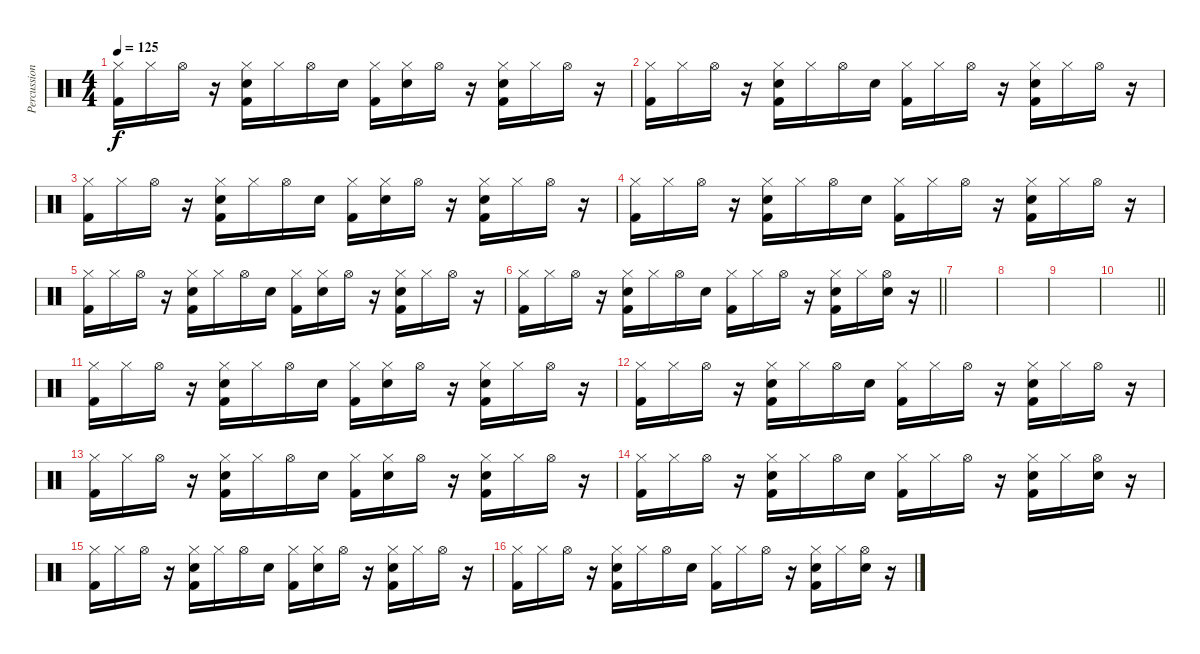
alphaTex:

\track ("Percussion" "Percussion") {instrument percussion}
\staff {score}
\articulation defaults
\ts (4 4)
\tempo 125
\clef neutral
\ks c
("Hi-Hat (closed)" "Kick (hit) 2").16{dy f} "Hi-Hat (closed)".16 "Hi-Hat (open)".16 r.16 ("Hi-Hat (closed)" "Electric Snare (hit)" "Kick (hit) 2").16 "Hi-Hat (closed)".16 "Hi-Hat (open)".16 "Electric Snare (hit)".16 ("Hi-Hat (closed)" "Kick (hit) 2").16 ("Hi-Hat (closed)" "Electric Snare (hit)").16 "Hi-Hat (open)".16 r.16 ("Hi-Hat (closed)" "Electric Snare (hit)" "Kick (hit) 2").16 "Hi-Hat (closed)".16 "Hi-Hat (open)".16 r.16 |
("Hi-Hat (closed)" "Kick (hit) 2").16 "Hi-Hat (closed)".16 "Hi-Hat (open)".16 r.16 ("Hi-Hat (closed)" "Electric Snare (hit)" "Kick (hit) 2").16 "Hi-Hat (closed)".16 "Hi-Hat (open)".16 "Electric Snare (hit)".16 ("Hi-Hat (closed)" "Kick (hit) 2").16 "Hi-Hat (closed)".16 "Hi-Hat (open)".16 r.16 ("Hi-Hat (closed)" "Electric Snare (hit)" "Kick (hit) 2").16 "Hi-Hat (closed)".16 "Hi-Hat (open)".16 r.16 |
("Hi-Hat (closed)" "Kick (hit) 2").16 "Hi-Hat (closed)".16 "Hi-Hat (open)".16 r.16 ("Hi-Hat (closed)" "Electric Snare (hit)" "Kick (hit) 2").16 "Hi-Hat (closed)".16 "Hi-Hat (open)".16 "Electric Snare (hit)".16 ("Hi-Hat (closed)" "Kick (hit) 2").16 ("Hi-Hat (closed)" "Electric Snare (hit)").16 "Hi-Hat (open)".16 r.16 ("Hi-Hat (closed)" "Electric Snare (hit)" "Kick (hit) 2").16 "Hi-Hat (closed)".16 "Hi-Hat (open)".16 r.16 |
("Hi-Hat (closed)" "Kick (hit) 2").16 "Hi-Hat (closed)".16 "Hi-Hat (open)".16 r.16 ("Hi-Hat (closed)" "Electric Snare (hit)" "Kick (hit) 2").16 "Hi-Hat (closed)".16 "Hi-Hat (open)".16 "Electric Snare (hit)".16 ("Hi-Hat (closed)" "Kick (hit) 2").16 "Hi-Hat (closed)".16 "Hi-Hat (open)".16 r.16 ("Hi-Hat (closed)" "Electric Snare (hit)" "Kick (hit) 2").16 "Hi-Hat (closed)".16 "Hi-Hat (open)".16 r.16 |
("Hi-Hat (closed)" "Kick (hit) 2").16 "Hi-Hat (closed)".16 "Hi-Hat (open)".16 r.16 ("Hi-Hat (closed)" "Electric Snare (hit)" "Kick (hit) 2").16 "Hi-Hat (closed)".16 "Hi-Hat (open)".16 "Electric Snare (hit)".16 ("Hi-Hat (closed)" "Kick (hit) 2").16 ("Hi-Hat (closed)" "Electric Snare (hit)").16 "Hi-Hat (open)".16 r.16 ("Hi-Hat (closed)" "Electric Snare (hit)" "Kick (hit) 2").16 "Hi-Hat (closed)".16 "Hi-Hat (open)".16 r.16 |
\barLineRight lightlight
("Hi-Hat (closed)" "Kick (hit) 2").16 "Hi-Hat (closed)".16 "Hi-Hat (open)".16 r.16 ("Hi-Hat (closed)" "Electric Snare (hit)" "Kick (hit) 2").16 "Hi-Hat (closed)".16 "Hi-Hat (open)".16 "Electric Snare (hit)".16 ("Hi-Hat (closed)" "Kick (hit) 2").16 "Hi-Hat (closed)".16 "Hi-Hat (open)".16 r.16 ("Hi-Hat (closed)" "Electric Snare (hit)" "Kick (hit) 2").16 "Hi-Hat (closed)".16 ("Hi-Hat (open)" "Electric Snare (hit)").16 r.16 |
|
|
|
\barLineRight lightlight
|
("Hi-Hat (closed)" "Kick (hit) 2").16 "Hi-Hat (closed)".16 "Hi-Hat (open)".16 r.16 ("Hi-Hat (closed)" "Electric Snare (hit)" "Kick (hit) 2").16 "Hi-Hat (closed)".16 "Hi-Hat (open)".16 "Electric Snare (hit)".16 ("Hi-Hat (closed)" "Kick (hit) 2").16 ("Hi-Hat (closed)" "Electric Snare (hit)").16 "Hi-Hat (open)".16 r.16 ("Hi-Hat (closed)" "Electric Snare (hit)" "Kick (hit) 2").16 "Hi-Hat (closed)".16 "Hi-Hat (open)".16 r.16 |
("Hi-Hat (closed)" "Kick (hit) 2").16 "Hi-Hat (closed)".16 "Hi-Hat (open)".16 r.16 ("Hi-Hat (closed)" "Electric Snare (hit)" "Kick (hit) 2").16 "Hi-Hat (closed)".16 "Hi-Hat (open)".16 "Electric Snare (hit)".16 ("Hi-Hat (closed)" "Kick (hit) 2").16 "Hi-Hat (closed)".16 "Hi-Hat (open)".16 r.16 ("Hi-Hat (closed)" "Electric Snare (hit)" "Kick (hit) 2").16 "Hi-Hat (closed)".16 "Hi-Hat (open)".16 r.16 |
("Hi-Hat (closed)" "Kick (hit) 2").16 "Hi-Hat (closed)".16 "Hi-Hat (open)".16 r.16 ("Hi-Hat (closed)" "Electric Snare (hit)" "Kick (hit) 2").16 "Hi-Hat (closed)".16 "Hi-Hat (open)".16 "Electric Snare (hit)".16 ("Hi-Hat (closed)" "Kick (hit) 2").16 ("Hi-Hat (closed)" "Electric Snare (hit)").16 "Hi-Hat (open)".16 r.16 ("Hi-Hat (closed)" "Electric Snare (hit)" "Kick (hit) 2").16 "Hi-Hat (closed)".16 "Hi-Hat (open)".16 r.16 |
("Hi-Hat (closed)" "Kick (hit) 2").16 "Hi-Hat (closed)".16 "Hi-Hat (open)".16 r.16 ("Hi-Hat (closed)" "Electric Snare (hit)" "Kick (hit) 2").16 "Hi-Hat (closed)".16 "Hi-Hat (open)".16 "Electric Snare (hit)".16 ("Hi-Hat (closed)" "Kick (hit) 2").16 "Hi-Hat (closed)".16 "Hi-Hat (open)".16 r.16 ("Hi-Hat (closed)" "Electric Snare (hit)" "Kick (hit) 2").16 "Hi-Hat (closed)".16 ("Hi-Hat (open)" "Electric Snare (hit)").16 r.16 |
("Hi-Hat (closed)" "Kick (hit) 2").16 "Hi-Hat (closed)".16 "Hi-Hat (open)".16 r.16 ("Hi-Hat (closed)" "Electric Snare (hit)" "Kick (hit) 2").16 "Hi-Hat (closed)".16 "Hi-Hat (open)".16 "Electric Snare (hit)".16 ("Hi-Hat (closed)" "Kick (hit) 2").16 ("Hi-Hat (closed)" "Electric Snare (hit)").16 "Hi-Hat (open)".16 r.16 ("Hi-Hat (closed)" "Electric Snare (hit)" "Kick (hit) 2").16 "Hi-Hat (closed)".16 "Hi-Hat (open)".16 r.16 |
("Hi-Hat (closed)" "Kick (hit) 2").16 "Hi-Hat (closed)".16 "Hi-Hat (open)".16 r.16 ("Hi-Hat (closed)" "Electric Snare (hit)" "Kick (hit) 2").16 "Hi-Hat (closed)".16 "Hi-Hat (open)".16 "Electric Snare (hit)".16 ("Hi-Hat (closed)" "Kick (hit) 2").16 "Hi-Hat (closed)".16 "Hi-Hat (open)".16 r.16 ("Hi-Hat (closed)" "Electric Snare (hit)" "Kick (hit) 2").16 "Hi-Hat (closed)".16 ("Hi-Hat (open)" "Electric Snare (hit)").16 r.16
